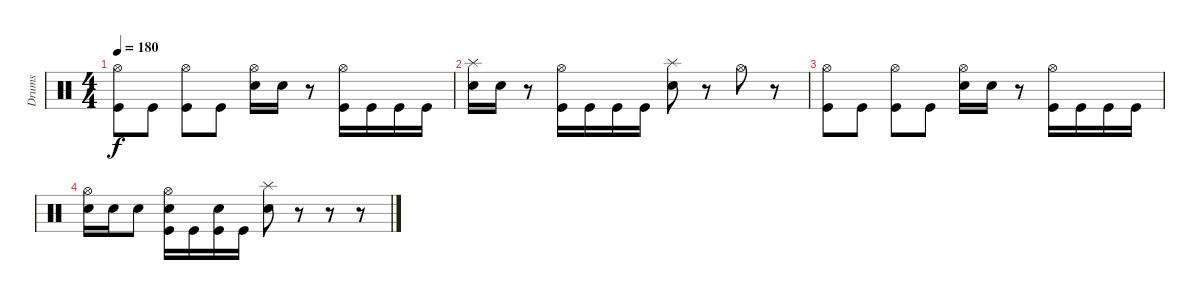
\track ("Drums" "Drums") {instrument percussion}
\staff {score}
\articulation defaults
\ts (4 4)
\tempo 180
\clef neutral
\ks c
("Hi-Hat (open)" "Kick (hit)").8{dy f} "Kick (hit)".8 ("Hi-Hat (open)" "Kick (hit)").8 "Kick (hit)".8 ("Hi-Hat (open)" "Snare (hit) 2").16 "Snare (hit) 2".16 r.8 ("Hi-Hat (open)" "Kick (hit)").16 "Kick (hit)".16 "Kick (hit)".16 "Kick (hit)".16 |
("Splash (hit)" "Snare (hit) 2").16 "Snare (hit) 2".16 r.8 ("Hi-Hat (open)" "Kick (hit)").16 "Kick (hit)".16 "Kick (hit)".16 "Kick (hit)".16 ("Splash (hit)" "Snare (hit) 2").8 r.8 "Hi-Hat (open)".8 r.8 |
("Hi-Hat (open)" "Kick (hit)").8 "Kick (hit)".8 ("Hi-Hat (open)" "Kick (hit)").8 "Kick (hit)".8 ("Hi-Hat (open)" "Snare (hit) 2").16 "Snare (hit) 2".16 r.8 ("Hi-Hat (open)" "Kick (hit)").16 "Kick (hit)".16 "Kick (hit)".16 "Kick (hit)".16 |
("Hi-Hat (open)" "Snare (hit) 2").16 "Snare (hit) 2".16 "Snare (hit) 2".8 ("Hi-Hat (open)" "Snare (hit) 2" "Kick (hit)").16 "Kick (hit)".16 ("Snare (hit) 2" "Kick (hit)").16 "Kick (hit)".16 ("Splash (hit)" "Snare (hit) 2").8 r.8 r.8 r.8
